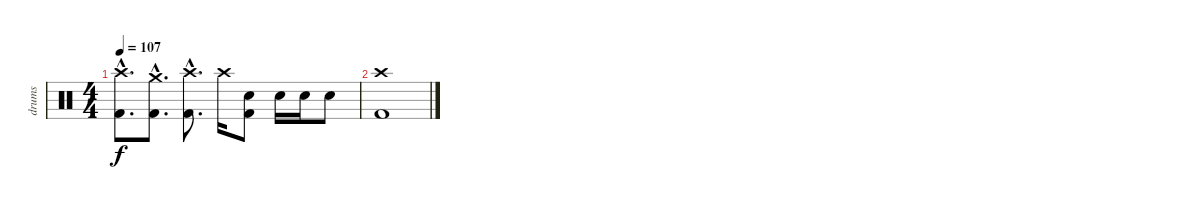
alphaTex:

\track ("drums" "drums") {instrument percussion}
\staff {score}
\articulation defaults
\ts (4 4)
\tempo 107
\clef neutral
\ks c
("Crash high (hit)"{hac} "Kick (hit) 2"{hac}).8{d dy f} ("Crash medium (hit)"{hac} "Kick (hit) 2"{hac}).8{d} ("Crash high (hit)"{hac} "Kick (hit) 2"{hac}).8{d} "Crash high (hit)".16 ("Electric Snare (hit)" "Kick (hit) 2").8 "Electric Snare (hit)".16 "Electric Snare (hit)".16 "Electric Snare (hit)".8 |
("Crash high (hit)" "Kick (hit) 2").1
